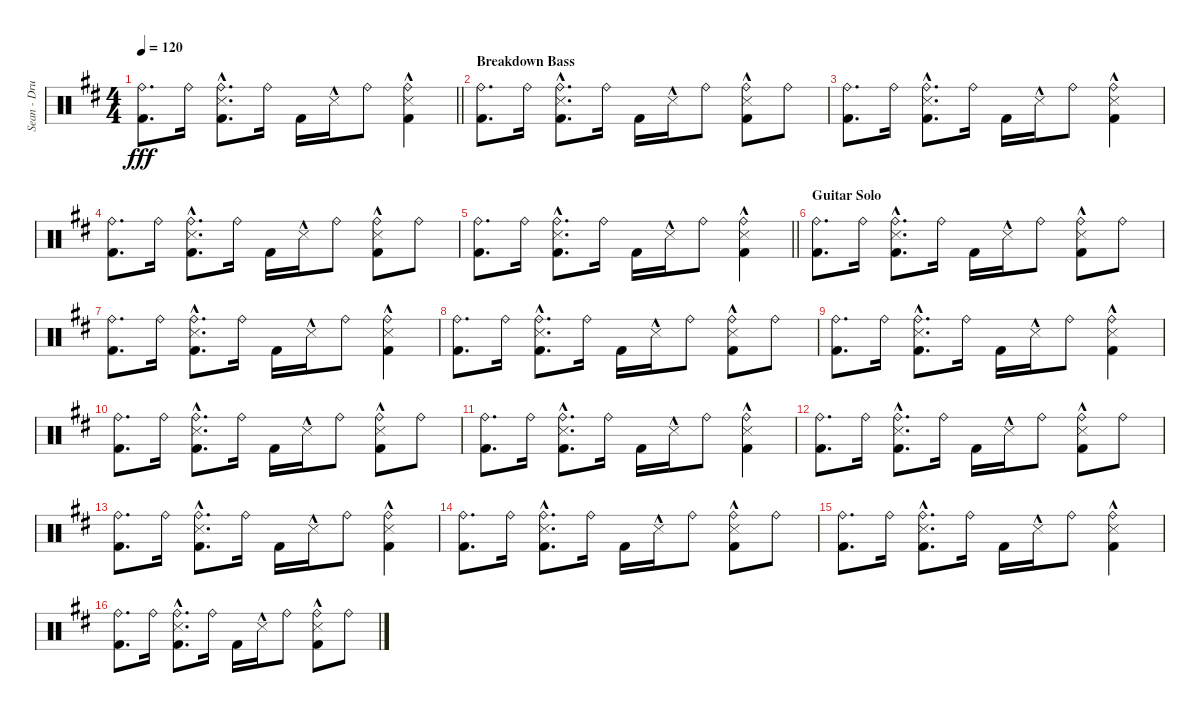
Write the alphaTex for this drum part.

\track ("Sean - Drums" "Sean - Dru") {instrument percussion}
\staff {score}
\articulation defaults
\ts (4 4)
\tempo 120
\clef neutral
\barLineRight lightlight
\ks d
("Ride (bell)" "Kick (hit) 2").8{d dy fff} "Ride (bell)".16 ("Ride (bell)" "Metronome (hit)"{hac} "Kick (hit) 2").8{d} "Ride (bell)".16 "Kick (hit) 2".16 "Metronome (hit)"{hac}.16 "Ride (bell)".8 ("Ride (bell)" "Metronome (hit)"{hac} "Kick (hit) 2").4 |
\section ("" "Breakdown Bass")
("Ride (bell)" "Kick (hit) 2").8{d} "Ride (bell)".16 ("Ride (bell)" "Metronome (hit)"{hac} "Kick (hit) 2").8{d} "Ride (bell)".16 "Kick (hit) 2".16 "Metronome (hit)"{hac}.16 "Ride (bell)".8 ("Ride (bell)" "Metronome (hit)"{hac} "Kick (hit) 2").8 "Ride (bell)".8 |
("Ride (bell)" "Kick (hit) 2").8{d} "Ride (bell)".16 ("Ride (bell)" "Metronome (hit)"{hac} "Kick (hit) 2").8{d} "Ride (bell)".16 "Kick (hit) 2".16 "Metronome (hit)"{hac}.16 "Ride (bell)".8 ("Ride (bell)" "Metronome (hit)"{hac} "Kick (hit) 2").4 |
("Ride (bell)" "Kick (hit) 2").8{d} "Ride (bell)".16 ("Ride (bell)" "Metronome (hit)"{hac} "Kick (hit) 2").8{d} "Ride (bell)".16 "Kick (hit) 2".16 "Metronome (hit)"{hac}.16 "Ride (bell)".8 ("Ride (bell)" "Metronome (hit)"{hac} "Kick (hit) 2").8 "Ride (bell)".8 |
\barLineRight lightlight
("Ride (bell)" "Kick (hit) 2").8{d} "Ride (bell)".16 ("Ride (bell)" "Metronome (hit)"{hac} "Kick (hit) 2").8{d} "Ride (bell)".16 "Kick (hit) 2".16 "Metronome (hit)"{hac}.16 "Ride (bell)".8 ("Ride (bell)" "Metronome (hit)"{hac} "Kick (hit) 2").4 |
\section ("" "Guitar Solo")
("Ride (bell)" "Kick (hit) 2").8{d} "Ride (bell)".16 ("Ride (bell)" "Metronome (hit)"{hac} "Kick (hit) 2").8{d} "Ride (bell)".16 "Kick (hit) 2".16 "Metronome (hit)"{hac}.16 "Ride (bell)".8 ("Ride (bell)" "Metronome (hit)"{hac} "Kick (hit) 2").8 "Ride (bell)".8 |
("Ride (bell)" "Kick (hit) 2").8{d} "Ride (bell)".16 ("Ride (bell)" "Metronome (hit)"{hac} "Kick (hit) 2").8{d} "Ride (bell)".16 "Kick (hit) 2".16 "Metronome (hit)"{hac}.16 "Ride (bell)".8 ("Ride (bell)" "Metronome (hit)"{hac} "Kick (hit) 2").4 |
("Ride (bell)" "Kick (hit) 2").8{d} "Ride (bell)".16 ("Ride (bell)" "Metronome (hit)"{hac} "Kick (hit) 2").8{d} "Ride (bell)".16 "Kick (hit) 2".16 "Metronome (hit)"{hac}.16 "Ride (bell)".8 ("Ride (bell)" "Metronome (hit)"{hac} "Kick (hit) 2").8 "Ride (bell)".8 |
("Ride (bell)" "Kick (hit) 2").8{d} "Ride (bell)".16 ("Ride (bell)" "Metronome (hit)"{hac} "Kick (hit) 2").8{d} "Ride (bell)".16 "Kick (hit) 2".16 "Metronome (hit)"{hac}.16 "Ride (bell)".8 ("Ride (bell)" "Metronome (hit)"{hac} "Kick (hit) 2").4 |
("Ride (bell)" "Kick (hit) 2").8{d} "Ride (bell)".16 ("Ride (bell)" "Metronome (hit)"{hac} "Kick (hit) 2").8{d} "Ride (bell)".16 "Kick (hit) 2".16 "Metronome (hit)"{hac}.16 "Ride (bell)".8 ("Ride (bell)" "Metronome (hit)"{hac} "Kick (hit) 2").8 "Ride (bell)".8 |
("Ride (bell)" "Kick (hit) 2").8{d} "Ride (bell)".16 ("Ride (bell)" "Metronome (hit)"{hac} "Kick (hit) 2").8{d} "Ride (bell)".16 "Kick (hit) 2".16 "Metronome (hit)"{hac}.16 "Ride (bell)".8 ("Ride (bell)" "Metronome (hit)"{hac} "Kick (hit) 2").4 |
("Ride (bell)" "Kick (hit) 2").8{d} "Ride (bell)".16 ("Ride (bell)" "Metronome (hit)"{hac} "Kick (hit) 2").8{d} "Ride (bell)".16 "Kick (hit) 2".16 "Metronome (hit)"{hac}.16 "Ride (bell)".8 ("Ride (bell)" "Metronome (hit)"{hac} "Kick (hit) 2").8 "Ride (bell)".8 |
("Ride (bell)" "Kick (hit) 2").8{d} "Ride (bell)".16 ("Ride (bell)" "Metronome (hit)"{hac} "Kick (hit) 2").8{d} "Ride (bell)".16 "Kick (hit) 2".16 "Metronome (hit)"{hac}.16 "Ride (bell)".8 ("Ride (bell)" "Metronome (hit)"{hac} "Kick (hit) 2").4 |
("Ride (bell)" "Kick (hit) 2").8{d} "Ride (bell)".16 ("Ride (bell)" "Metronome (hit)"{hac} "Kick (hit) 2").8{d} "Ride (bell)".16 "Kick (hit) 2".16 "Metronome (hit)"{hac}.16 "Ride (bell)".8 ("Ride (bell)" "Metronome (hit)"{hac} "Kick (hit) 2").8 "Ride (bell)".8 |
("Ride (bell)" "Kick (hit) 2").8{d} "Ride (bell)".16 ("Ride (bell)" "Metronome (hit)"{hac} "Kick (hit) 2").8{d} "Ride (bell)".16 "Kick (hit) 2".16 "Metronome (hit)"{hac}.16 "Ride (bell)".8 ("Ride (bell)" "Metronome (hit)"{hac} "Kick (hit) 2").4 |
("Ride (bell)" "Kick (hit) 2").8{d} "Ride (bell)".16 ("Ride (bell)" "Metronome (hit)"{hac} "Kick (hit) 2").8{d} "Ride (bell)".16 "Kick (hit) 2".16 "Metronome (hit)"{hac}.16 "Ride (bell)".8 ("Ride (bell)" "Metronome (hit)"{hac} "Kick (hit) 2").8 "Ride (bell)".8
